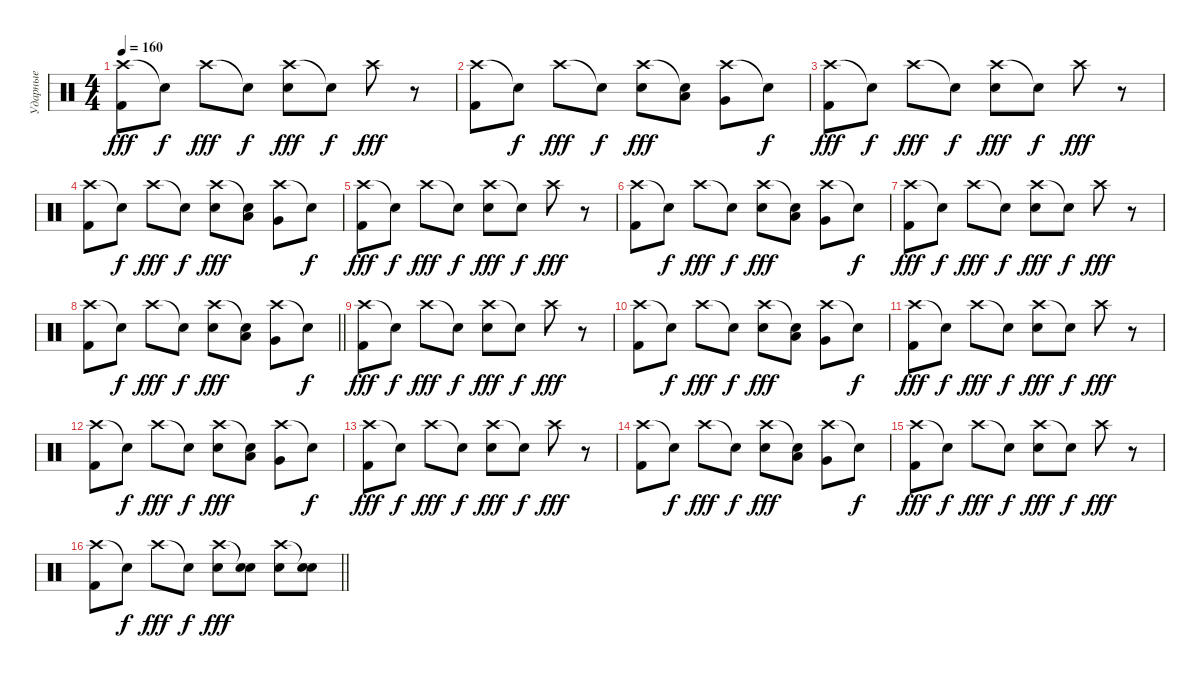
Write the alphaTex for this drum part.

\track ("Ударные" "Ударные") {instrument percussion}
\staff {score}
\articulation defaults
\ts (4 4)
\tempo 160
\clef neutral
\ks c
("Crash high (hit)" "Kick (hit) 2").8{dy fff} "Snare (hit)"{t}.8{dy f} "Crash high (hit)".8{dy fff} "Snare (hit)"{t}.8{dy f} ("Crash high (hit)" "Electric Snare (hit)").8{dy fff} "Snare (hit)"{t}.8{dy f} "Crash high (hit)".8{dy fff} r.8 |
("Crash high (hit)" "Kick (hit) 2").8 "Snare (hit)"{t}.8{dy f} "Crash high (hit)".8{dy fff} "Snare (hit)"{t}.8{dy f} ("Crash high (hit)" "Electric Snare (hit)").8{dy fff} ("Snare (hit)"{t} "Low Tom (hit)").8 ("Crash high (hit)" "Very Low Tom (hit)").8 "Snare (hit)"{t}.8{dy f} |
("Crash high (hit)" "Kick (hit) 2").8{dy fff} "Snare (hit)"{t}.8{dy f} "Crash high (hit)".8{dy fff} "Snare (hit)"{t}.8{dy f} ("Crash high (hit)" "Electric Snare (hit)").8{dy fff} "Snare (hit)"{t}.8{dy f} "Crash high (hit)".8{dy fff} r.8 |
("Crash high (hit)" "Kick (hit) 2").8 "Snare (hit)"{t}.8{dy f} "Crash high (hit)".8{dy fff} "Snare (hit)"{t}.8{dy f} ("Crash high (hit)" "Electric Snare (hit)").8{dy fff} ("Snare (hit)"{t} "Low Tom (hit)").8 ("Crash high (hit)" "Very Low Tom (hit)").8 "Snare (hit)"{t}.8{dy f} |
("Crash high (hit)" "Kick (hit) 2").8{dy fff} "Snare (hit)"{t}.8{dy f} "Crash high (hit)".8{dy fff} "Snare (hit)"{t}.8{dy f} ("Crash high (hit)" "Electric Snare (hit)").8{dy fff} "Snare (hit)"{t}.8{dy f} "Crash high (hit)".8{dy fff} r.8 |
("Crash high (hit)" "Kick (hit) 2").8 "Snare (hit)"{t}.8{dy f} "Crash high (hit)".8{dy fff} "Snare (hit)"{t}.8{dy f} ("Crash high (hit)" "Electric Snare (hit)").8{dy fff} ("Snare (hit)"{t} "Low Tom (hit)").8 ("Crash high (hit)" "Very Low Tom (hit)").8 "Snare (hit)"{t}.8{dy f} |
("Crash high (hit)" "Kick (hit) 2").8{dy fff} "Snare (hit)"{t}.8{dy f} "Crash high (hit)".8{dy fff} "Snare (hit)"{t}.8{dy f} ("Crash high (hit)" "Electric Snare (hit)").8{dy fff} "Snare (hit)"{t}.8{dy f} "Crash high (hit)".8{dy fff} r.8 |
\barLineRight lightlight
("Crash high (hit)" "Kick (hit) 2").8 "Snare (hit)"{t}.8{dy f} "Crash high (hit)".8{dy fff} "Snare (hit)"{t}.8{dy f} ("Crash high (hit)" "Electric Snare (hit)").8{dy fff} ("Snare (hit)"{t} "Low Tom (hit)").8 ("Crash high (hit)" "Very Low Tom (hit)").8 "Snare (hit)"{t}.8{dy f} |
("Crash high (hit)" "Kick (hit) 2").8{dy fff} "Snare (hit)"{t}.8{dy f} "Crash high (hit)".8{dy fff} "Snare (hit)"{t}.8{dy f} ("Crash high (hit)" "Electric Snare (hit)").8{dy fff} "Snare (hit)"{t}.8{dy f} "Crash high (hit)".8{dy fff} r.8 |
("Crash high (hit)" "Kick (hit) 2").8 "Snare (hit)"{t}.8{dy f} "Crash high (hit)".8{dy fff} "Snare (hit)"{t}.8{dy f} ("Crash high (hit)" "Electric Snare (hit)").8{dy fff} ("Snare (hit)"{t} "Low Tom (hit)").8 ("Crash high (hit)" "Very Low Tom (hit)").8 "Snare (hit)"{t}.8{dy f} |
("Crash high (hit)" "Kick (hit) 2").8{dy fff} "Snare (hit)"{t}.8{dy f} "Crash high (hit)".8{dy fff} "Snare (hit)"{t}.8{dy f} ("Crash high (hit)" "Electric Snare (hit)").8{dy fff} "Snare (hit)"{t}.8{dy f} "Crash high (hit)".8{dy fff} r.8 |
("Crash high (hit)" "Kick (hit) 2").8 "Snare (hit)"{t}.8{dy f} "Crash high (hit)".8{dy fff} "Snare (hit)"{t}.8{dy f} ("Crash high (hit)" "Electric Snare (hit)").8{dy fff} ("Snare (hit)"{t} "Low Tom (hit)").8 ("Crash high (hit)" "Very Low Tom (hit)").8 "Snare (hit)"{t}.8{dy f} |
("Crash high (hit)" "Kick (hit) 2").8{dy fff} "Snare (hit)"{t}.8{dy f} "Crash high (hit)".8{dy fff} "Snare (hit)"{t}.8{dy f} ("Crash high (hit)" "Electric Snare (hit)").8{dy fff} "Snare (hit)"{t}.8{dy f} "Crash high (hit)".8{dy fff} r.8 |
("Crash high (hit)" "Kick (hit) 2").8 "Snare (hit)"{t}.8{dy f} "Crash high (hit)".8{dy fff} "Snare (hit)"{t}.8{dy f} ("Crash high (hit)" "Electric Snare (hit)").8{dy fff} ("Snare (hit)"{t} "Low Tom (hit)").8 ("Crash high (hit)" "Very Low Tom (hit)").8 "Snare (hit)"{t}.8{dy f} |
("Crash high (hit)" "Kick (hit) 2").8{dy fff} "Snare (hit)"{t}.8{dy f} "Crash high (hit)".8{dy fff} "Snare (hit)"{t}.8{dy f} ("Crash high (hit)" "Electric Snare (hit)").8{dy fff} "Snare (hit)"{t}.8{dy f} "Crash high (hit)".8{dy fff} r.8 |
\barLineRight lightlight
("Crash high (hit)" "Kick (hit) 2").8 "Snare (hit)"{t}.8{dy f} "Crash high (hit)".8{dy fff} "Snare (hit)"{t}.8{dy f} ("Crash high (hit)" "Electric Snare (hit)").8{dy fff} ("Snare (hit)"{t} "Electric Snare (hit)").8 ("Crash high (hit)" "Electric Snare (hit)").8 ("Snare (hit)"{t} "Electric Snare (hit)").8
